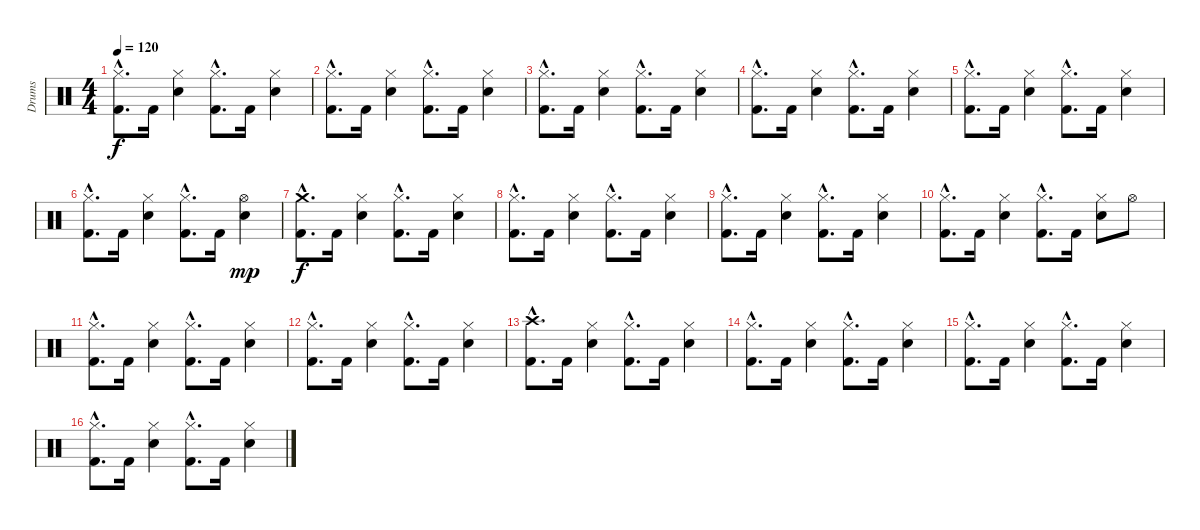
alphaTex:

\track ("Drums" "Drums") {instrument percussion}
\staff {score}
\articulation defaults
\ts (4 4)
\tempo 120
\clef neutral
\ks c
("Hi-Hat (closed)"{hac} "Kick (hit) 2"{hac}).8{d dy f} "Kick (hit) 2".16 ("Hi-Hat (closed)" "Snare (hit) 2").4 ("Hi-Hat (closed)"{hac} "Kick (hit) 2"{hac}).8{d} "Kick (hit) 2".16 ("Hi-Hat (closed)" "Snare (hit) 2").4 |
("Hi-Hat (closed)"{hac} "Kick (hit) 2"{hac}).8{d} "Kick (hit) 2".16 ("Hi-Hat (closed)" "Snare (hit) 2").4 ("Hi-Hat (closed)"{hac} "Kick (hit) 2"{hac}).8{d} "Kick (hit) 2".16 ("Hi-Hat (closed)" "Snare (hit) 2").4 |
("Hi-Hat (closed)"{hac} "Kick (hit) 2"{hac}).8{d} "Kick (hit) 2".16 ("Hi-Hat (closed)" "Snare (hit) 2").4 ("Hi-Hat (closed)"{hac} "Kick (hit) 2"{hac}).8{d} "Kick (hit) 2".16 ("Hi-Hat (closed)" "Snare (hit) 2").4 |
("Hi-Hat (closed)"{hac} "Kick (hit) 2"{hac}).8{d} "Kick (hit) 2".16 ("Hi-Hat (closed)" "Snare (hit) 2").4 ("Hi-Hat (closed)"{hac} "Kick (hit) 2"{hac}).8{d} "Kick (hit) 2".16 ("Hi-Hat (closed)" "Snare (hit) 2").4 |
("Hi-Hat (closed)"{hac} "Kick (hit) 2"{hac}).8{d} "Kick (hit) 2".16 ("Hi-Hat (closed)" "Snare (hit) 2").4 ("Hi-Hat (closed)"{hac} "Kick (hit) 2"{hac}).8{d} "Kick (hit) 2".16 ("Hi-Hat (closed)" "Snare (hit) 2").4 |
("Hi-Hat (closed)"{hac} "Kick (hit) 2"{hac}).8{d} "Kick (hit) 2".16 ("Hi-Hat (closed)" "Snare (hit) 2").4 ("Hi-Hat (closed)"{hac} "Kick (hit) 2"{hac}).8{d} "Kick (hit) 2".16 ("Hi-Hat (open)" "Snare (hit) 2").4{dy mp} |
("Crash medium (hit)"{hac} "Kick (hit) 2"{hac}).8{d dy f} "Kick (hit) 2".16 ("Hi-Hat (closed)" "Snare (hit) 2").4 ("Hi-Hat (closed)"{hac} "Kick (hit) 2"{hac}).8{d} "Kick (hit) 2".16 ("Hi-Hat (closed)" "Snare (hit) 2").4 |
("Hi-Hat (closed)"{hac} "Kick (hit) 2"{hac}).8{d} "Kick (hit) 2".16 ("Hi-Hat (closed)" "Snare (hit) 2").4 ("Hi-Hat (closed)"{hac} "Kick (hit) 2"{hac}).8{d} "Kick (hit) 2".16 ("Hi-Hat (closed)" "Snare (hit) 2").4 |
("Hi-Hat (closed)"{hac} "Kick (hit) 2"{hac}).8{d} "Kick (hit) 2".16 ("Hi-Hat (closed)" "Snare (hit) 2").4 ("Hi-Hat (closed)"{hac} "Kick (hit) 2"{hac}).8{d} "Kick (hit) 2".16 ("Hi-Hat (closed)" "Snare (hit) 2").4 |
("Hi-Hat (closed)"{hac} "Kick (hit) 2"{hac}).8{d} "Kick (hit) 2".16 ("Hi-Hat (closed)" "Snare (hit) 2").4 ("Hi-Hat (closed)"{hac} "Kick (hit) 2"{hac}).8{d} "Kick (hit) 2".16 ("Hi-Hat (closed)" "Snare (hit) 2").8 "Hi-Hat (open)".8 |
("Hi-Hat (closed)"{hac} "Kick (hit) 2"{hac}).8{d} "Kick (hit) 2".16 ("Hi-Hat (closed)" "Snare (hit) 2").4 ("Hi-Hat (closed)"{hac} "Kick (hit) 2"{hac}).8{d} "Kick (hit) 2".16 ("Hi-Hat (closed)" "Snare (hit) 2").4 |
("Hi-Hat (closed)"{hac} "Kick (hit) 2"{hac}).8{d} "Kick (hit) 2".16 ("Hi-Hat (closed)" "Snare (hit) 2").4 ("Hi-Hat (closed)"{hac} "Kick (hit) 2"{hac}).8{d} "Kick (hit) 2".16 ("Hi-Hat (closed)" "Snare (hit) 2").4 |
("Crash high (hit)"{hac} "Kick (hit) 2"{hac}).8{d} "Kick (hit) 2".16 ("Hi-Hat (closed)" "Snare (hit) 2").4 ("Hi-Hat (closed)"{hac} "Kick (hit) 2"{hac}).8{d} "Kick (hit) 2".16 ("Hi-Hat (closed)" "Snare (hit) 2").4 |
("Hi-Hat (closed)"{hac} "Kick (hit) 2"{hac}).8{d} "Kick (hit) 2".16 ("Hi-Hat (closed)" "Snare (hit) 2").4 ("Hi-Hat (closed)"{hac} "Kick (hit) 2"{hac}).8{d} "Kick (hit) 2".16 ("Hi-Hat (closed)" "Snare (hit) 2").4 |
("Hi-Hat (closed)"{hac} "Kick (hit) 2"{hac}).8{d} "Kick (hit) 2".16 ("Hi-Hat (closed)" "Snare (hit) 2").4 ("Hi-Hat (closed)"{hac} "Kick (hit) 2"{hac}).8{d} "Kick (hit) 2".16 ("Hi-Hat (closed)" "Snare (hit) 2").4 |
("Hi-Hat (closed)"{hac} "Kick (hit) 2"{hac}).8{d} "Kick (hit) 2".16 ("Hi-Hat (closed)" "Snare (hit) 2").4 ("Hi-Hat (closed)"{hac} "Kick (hit) 2"{hac}).8{d} "Kick (hit) 2".16 ("Hi-Hat (closed)" "Snare (hit) 2").4
